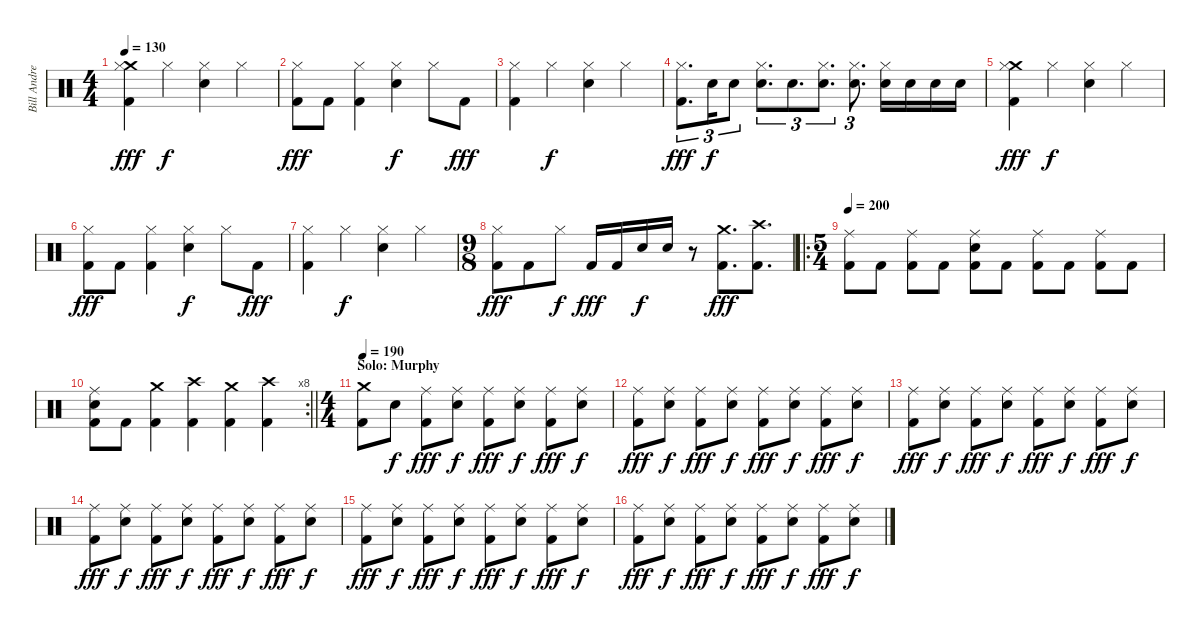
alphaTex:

\track ("Bill Andrews" "Bill Andre") {instrument percussion}
\staff {score}
\articulation defaults
\ts (4 4)
\tempo 130
\clef neutral
\ks c
("Crash medium (hit)" "Hi-Hat (closed)" "Kick (hit) 2").4{dy fff} "Hi-Hat (closed)".4{dy f} ("Hi-Hat (closed)" "Electric Snare (hit)").4 "Hi-Hat (closed)".4 |
("Hi-Hat (closed)" "Kick (hit) 2").8{dy fff} "Kick (hit) 2".8 ("Hi-Hat (closed)" "Kick (hit) 2").4 ("Hi-Hat (closed)" "Electric Snare (hit)").4{dy f} "Hi-Hat (closed)".8 "Kick (hit) 2".8{dy fff} |
("Hi-Hat (closed)" "Kick (hit) 2").4 "Hi-Hat (closed)".4{dy f} ("Hi-Hat (closed)" "Electric Snare (hit)").4 "Hi-Hat (closed)".4 |
("Hi-Hat (closed)" "Kick (hit) 2").8{d tu (3 2) dy fff} "Electric Snare (hit)".16{tu (3 2) dy f} "Electric Snare (hit)".8{tu (3 2)} ("Hi-Hat (closed)" "Electric Snare (hit)").8{d tu (3 2)} "Electric Snare (hit)".8{d tu (3 2)} ("Hi-Hat (closed)" "Electric Snare (hit)").8{d tu (3 2)} ("Hi-Hat (closed)" "Electric Snare (hit)").8{d tu (3 2)} ("Hi-Hat (closed)" "Electric Snare (hit)").16 "Electric Snare (hit)".16 "Electric Snare (hit)".16 "Electric Snare (hit)".16 |
("Crash medium (hit)" "Hi-Hat (closed)" "Kick (hit) 2").4{dy fff} "Hi-Hat (closed)".4{dy f} ("Hi-Hat (closed)" "Electric Snare (hit)").4 "Hi-Hat (closed)".4 |
("Hi-Hat (closed)" "Kick (hit) 2").8{dy fff} "Kick (hit) 2".8 ("Hi-Hat (closed)" "Kick (hit) 2").4 ("Hi-Hat (closed)" "Electric Snare (hit)").4{dy f} "Hi-Hat (closed)".8 "Kick (hit) 2".8{dy fff} |
("Hi-Hat (closed)" "Kick (hit) 2").4 "Hi-Hat (closed)".4{dy f} ("Hi-Hat (closed)" "Electric Snare (hit)").4 "Hi-Hat (closed)".4 |
\ts (9 8)
("Hi-Hat (closed)" "Kick (hit) 2").8{dy fff} "Kick (hit) 2".8 "Hi-Hat (closed)".8{dy f} "Kick (hit) 2".16{dy fff} "Kick (hit) 2".16 "Electric Snare (hit)".16{dy f} "Electric Snare (hit)".16 r.8 ("Crash medium (hit)" "Kick (hit) 2").8{d dy fff} ("Crash high (hit)" "Kick (hit) 2").8{d} |
\ro
\ts (5 4)
\tempo 200
("Ride (middle)" "Kick (hit) 2").8 "Kick (hit) 2".8 ("Ride (middle)" "Kick (hit) 2").8 "Kick (hit) 2".8 ("Ride (middle)" "Electric Snare (hit)" "Kick (hit) 2").8 "Kick (hit) 2".8 ("Ride (middle)" "Kick (hit) 2").8 "Kick (hit) 2".8 ("Ride (middle)" "Kick (hit) 2").8 "Kick (hit) 2".8 |
\rc 8
\barLineRight lightlight
("Ride (middle)" "Electric Snare (hit)" "Kick (hit) 2").8 "Kick (hit) 2".8 ("Crash medium (hit)" "Kick (hit) 2").4 ("Crash high (hit)" "Kick (hit) 2").4 ("Crash medium (hit)" "Kick (hit) 2").4 ("Crash high (hit)" "Kick (hit) 2").4 |
\ts (4 4)
\section ("" "Solo: Murphy")
\tempo 190
("Crash medium (hit)" "Kick (hit) 2").8 "Electric Snare (hit)".8{dy f} ("Ride (middle)" "Kick (hit) 2").8{dy fff} ("Ride (middle)" "Electric Snare (hit)").8{dy f} ("Ride (middle)" "Kick (hit) 2").8{dy fff} ("Ride (middle)" "Electric Snare (hit)").8{dy f} ("Ride (middle)" "Kick (hit) 2").8{dy fff} ("Ride (middle)" "Electric Snare (hit)").8{dy f} |
("Ride (middle)" "Kick (hit) 2").8{dy fff} ("Ride (middle)" "Electric Snare (hit)").8{dy f} ("Ride (middle)" "Kick (hit) 2").8{dy fff} ("Ride (middle)" "Electric Snare (hit)").8{dy f} ("Ride (middle)" "Kick (hit) 2").8{dy fff} ("Ride (middle)" "Electric Snare (hit)").8{dy f} ("Ride (middle)" "Kick (hit) 2").8{dy fff} ("Ride (middle)" "Electric Snare (hit)").8{dy f} |
("Ride (middle)" "Kick (hit) 2").8{dy fff} ("Ride (middle)" "Electric Snare (hit)").8{dy f} ("Ride (middle)" "Kick (hit) 2").8{dy fff} ("Ride (middle)" "Electric Snare (hit)").8{dy f} ("Ride (middle)" "Kick (hit) 2").8{dy fff} ("Ride (middle)" "Electric Snare (hit)").8{dy f} ("Ride (middle)" "Kick (hit) 2").8{dy fff} ("Ride (middle)" "Electric Snare (hit)").8{dy f} |
("Ride (middle)" "Kick (hit) 2").8{dy fff} ("Ride (middle)" "Electric Snare (hit)").8{dy f} ("Ride (middle)" "Kick (hit) 2").8{dy fff} ("Ride (middle)" "Electric Snare (hit)").8{dy f} ("Ride (middle)" "Kick (hit) 2").8{dy fff} ("Ride (middle)" "Electric Snare (hit)").8{dy f} ("Ride (middle)" "Kick (hit) 2").8{dy fff} ("Ride (middle)" "Electric Snare (hit)").8{dy f} |
("Ride (middle)" "Kick (hit) 2").8{dy fff} ("Ride (middle)" "Electric Snare (hit)").8{dy f} ("Ride (middle)" "Kick (hit) 2").8{dy fff} ("Ride (middle)" "Electric Snare (hit)").8{dy f} ("Ride (middle)" "Kick (hit) 2").8{dy fff} ("Ride (middle)" "Electric Snare (hit)").8{dy f} ("Ride (middle)" "Kick (hit) 2").8{dy fff} ("Ride (middle)" "Electric Snare (hit)").8{dy f} |
("Ride (middle)" "Kick (hit) 2").8{dy fff} ("Ride (middle)" "Electric Snare (hit)").8{dy f} ("Ride (middle)" "Kick (hit) 2").8{dy fff} ("Ride (middle)" "Electric Snare (hit)").8{dy f} ("Ride (middle)" "Kick (hit) 2").8{dy fff} ("Ride (middle)" "Electric Snare (hit)").8{dy f} ("Ride (middle)" "Kick (hit) 2").8{dy fff} ("Ride (middle)" "Electric Snare (hit)").8{dy f}
